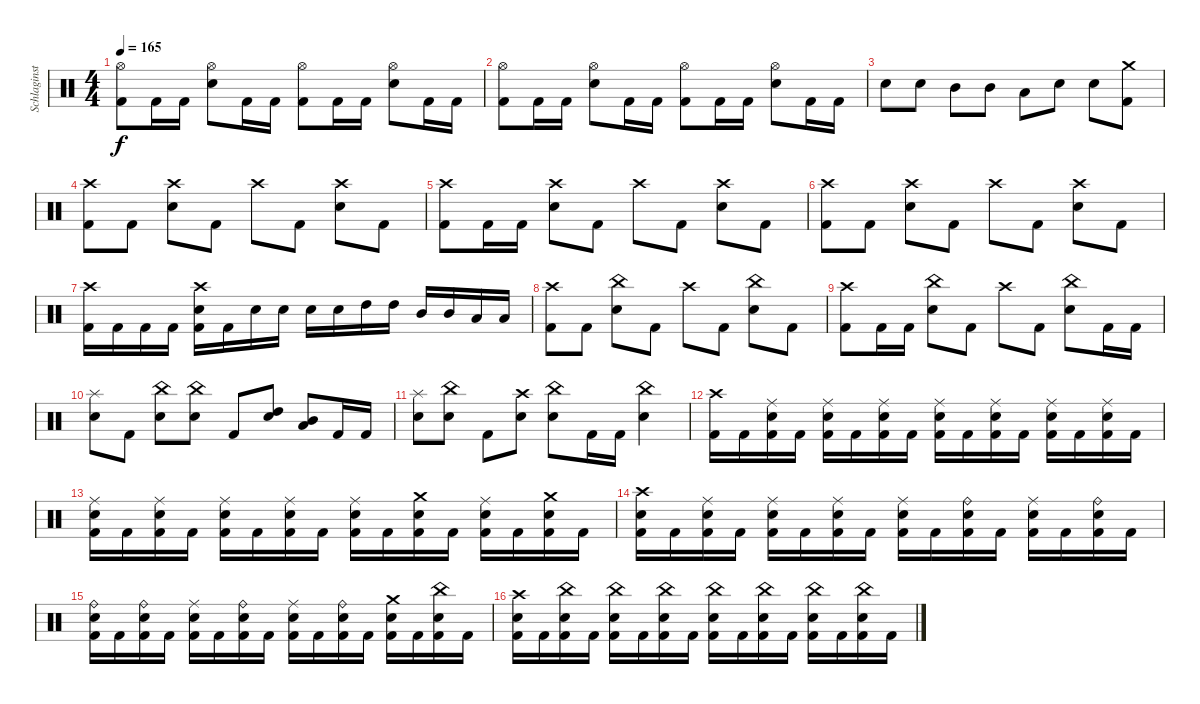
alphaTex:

\track ("Schlaginstrumente - Auswahl" "Schlaginst") {instrument percussion}
\staff {score}
\articulation defaults
\ts (4 4)
\tempo 165
\clef neutral
\ks c
("Hi-Hat (open)" "Kick (hit) 2").8{dy f} "Kick (hit) 2".16 "Kick (hit) 2".16 ("Hi-Hat (open)" "Snare (hit) 2").8 "Kick (hit) 2".16 "Kick (hit) 2".16 ("Hi-Hat (open)" "Kick (hit) 2").8 "Kick (hit) 2".16 "Kick (hit) 2".16 ("Hi-Hat (open)" "Snare (hit) 2").8 "Kick (hit) 2".16 "Kick (hit) 2".16 |
("Hi-Hat (open)" "Kick (hit) 2").8 "Kick (hit) 2".16 "Kick (hit) 2".16 ("Hi-Hat (open)" "Snare (hit) 2").8 "Kick (hit) 2".16 "Kick (hit) 2".16 ("Hi-Hat (open)" "Kick (hit) 2").8 "Kick (hit) 2".16 "Kick (hit) 2".16 ("Hi-Hat (open)" "Snare (hit) 2").8 "Kick (hit) 2".16 "Kick (hit) 2".16 |
"Snare (hit) 2".8 "Snare (hit) 2".8 "Mid Tom (hit)".8 "Mid Tom (hit)".8 "Low Tom (hit)".8 "Snare (hit) 2".8 "Snare (hit) 2".8 ("Crash medium (hit)" "Kick (hit) 2").8 |
("Crash high (hit)" "Kick (hit) 2").8 "Kick (hit) 2".8 ("Crash high (hit)" "Snare (hit) 2").8 "Kick (hit) 2".8 "Crash high (hit)".8 "Kick (hit) 2".8 ("Crash high (hit)" "Snare (hit) 2").8 "Kick (hit) 2".8 |
("Crash high (hit)" "Kick (hit) 2").8 "Kick (hit) 2".16 "Kick (hit) 2".16 ("Crash high (hit)" "Snare (hit) 2").8 "Kick (hit) 2".8 "Crash high (hit)".8 "Kick (hit) 2".8 ("Crash high (hit)" "Snare (hit) 2").8 "Kick (hit) 2".8 |
("Crash high (hit)" "Kick (hit) 2").8 "Kick (hit) 2".8 ("Crash high (hit)" "Snare (hit) 2").8 "Kick (hit) 2".8 "Crash high (hit)".8 "Kick (hit) 2".8 ("Crash high (hit)" "Snare (hit) 2").8 "Kick (hit) 2".8 |
("Crash high (hit)" "Kick (hit) 2").16 "Kick (hit) 2".16 "Kick (hit) 2".16 "Kick (hit) 2".16 ("Crash high (hit)" "Snare (hit) 2" "Kick (hit) 2").16 "Kick (hit) 2".16 "Snare (hit) 2".16 "Snare (hit) 2".16 "Snare (hit) 2".16 "Snare (hit) 2".16 "High Tom (hit)".16 "High Tom (hit)".16 "Mid Tom (hit)".16 "Mid Tom (hit)".16 "Low Tom (hit)".16 "Low Tom (hit)".16 |
("Crash high (hit)" "Kick (hit) 2").8 "Kick (hit) 2".8 ("China (hit)" "Snare (hit) 2").8 "Kick (hit) 2".8 "Crash high (hit)".8 "Kick (hit) 2".8 ("China (hit)" "Snare (hit) 2").8 "Kick (hit) 2".8 |
("Crash high (hit)" "Kick (hit) 2").8 "Kick (hit) 2".16 "Kick (hit) 2".16 ("China (hit)" "Snare (hit) 2").8 "Kick (hit) 2".8 "Crash high (hit)".8 "Kick (hit) 2".8 ("China (hit)" "Snare (hit) 2").8 "Kick (hit) 2".16 "Kick (hit) 2".16 |
("Splash (hit)" "Snare (hit) 2").8 "Kick (hit) 2".8 ("China (hit)" "Snare (hit) 2").8 ("China (hit)" "Snare (hit) 2").8 "Kick (hit) 2".8 ("High Tom (hit)" "Snare (hit) 2").8 ("Mid Tom (hit)" "Low Tom (hit)").8 "Kick (hit) 2".16 "Kick (hit) 2".16 |
("Splash (hit)" "Snare (hit) 2").8 ("China (hit)" "Snare (hit) 2").8 "Kick (hit) 2".8 ("Crash high (hit)" "Snare (hit) 2").8 ("China (hit)" "Snare (hit) 2").8 "Kick (hit) 2".16 "Kick (hit) 2".16 ("China (hit)" "Snare (hit) 2").4 |
("Crash high (hit)" "Kick (hit) 2").16 "Kick (hit) 2".16 ("Ride (middle)" "Snare (hit) 2" "Kick (hit) 2").16 "Kick (hit) 2".16 ("Ride (middle)" "Snare (hit) 2" "Kick (hit) 2").16 "Kick (hit) 2".16 ("Ride (middle)" "Snare (hit) 2" "Kick (hit) 2").16 "Kick (hit) 2".16 ("Ride (middle)" "Snare (hit) 2" "Kick (hit) 2").16 "Kick (hit) 2".16 ("Ride (middle)" "Snare (hit) 2" "Kick (hit) 2").16 "Kick (hit) 2".16 ("Ride (middle)" "Snare (hit) 2" "Kick (hit) 2").16 "Kick (hit) 2".16 ("Ride (middle)" "Snare (hit) 2" "Kick (hit) 2").16 "Kick (hit) 2".16 |
("Ride (middle)" "Snare (hit) 2" "Kick (hit) 2").16 "Kick (hit) 2".16 ("Ride (middle)" "Snare (hit) 2" "Kick (hit) 2").16 "Kick (hit) 2".16 ("Ride (middle)" "Snare (hit) 2" "Kick (hit) 2").16 "Kick (hit) 2".16 ("Ride (middle)" "Snare (hit) 2" "Kick (hit) 2").16 "Kick (hit) 2".16 ("Ride (middle)" "Snare (hit) 2" "Kick (hit) 2").16 "Kick (hit) 2".16 ("Crash medium (hit)" "Snare (hit) 2" "Kick (hit) 2").16 "Kick (hit) 2".16 ("Ride (middle)" "Snare (hit) 2" "Kick (hit) 2").16 "Kick (hit) 2".16 ("Crash medium (hit)" "Snare (hit) 2" "Kick (hit) 2").16 "Kick (hit) 2".16 |
("Crash high (hit)" "Snare (hit) 2" "Kick (hit) 2").16 "Kick (hit) 2".16 ("Ride (middle)" "Snare (hit) 2" "Kick (hit) 2").16 "Kick (hit) 2".16 ("Ride (middle)" "Snare (hit) 2" "Kick (hit) 2").16 "Kick (hit) 2".16 ("Ride (middle)" "Snare (hit) 2" "Kick (hit) 2").16 "Kick (hit) 2".16 ("Ride (middle)" "Snare (hit) 2" "Kick (hit) 2").16 "Kick (hit) 2".16 ("Ride (bell)" "Snare (hit) 2" "Kick (hit) 2").16 "Kick (hit) 2".16 ("Ride (middle)" "Snare (hit) 2" "Kick (hit) 2").16 "Kick (hit) 2".16 ("Ride (bell)" "Snare (hit) 2" "Kick (hit) 2").16 "Kick (hit) 2".16 |
("Ride (bell)" "Snare (hit) 2" "Kick (hit) 2").16 "Kick (hit) 2".16 ("Ride (bell)" "Snare (hit) 2" "Kick (hit) 2").16 "Kick (hit) 2".16 ("Ride (middle)" "Snare (hit) 2" "Kick (hit) 2").16 "Kick (hit) 2".16 ("Ride (bell)" "Snare (hit) 2" "Kick (hit) 2").16 "Kick (hit) 2".16 ("Ride (middle)" "Snare (hit) 2" "Kick (hit) 2").16 "Kick (hit) 2".16 ("Ride (bell)" "Snare (hit) 2" "Kick (hit) 2").16 "Kick (hit) 2".16 ("Crash medium (hit)" "Snare (hit) 2" "Kick (hit) 2").16 "Kick (hit) 2".16 ("China (hit)" "Snare (hit) 2" "Kick (hit) 2").16 "Kick (hit) 2".16 |
("Crash high (hit)" "Snare (hit) 2" "Kick (hit) 2").16 "Kick (hit) 2".16 ("China (hit)" "Snare (hit) 2" "Kick (hit) 2").16 "Kick (hit) 2".16 ("China (hit)" "Snare (hit) 2" "Kick (hit) 2").16 "Kick (hit) 2".16 ("China (hit)" "Snare (hit) 2" "Kick (hit) 2").16 "Kick (hit) 2".16 ("China (hit)" "Snare (hit) 2" "Kick (hit) 2").16 "Kick (hit) 2".16 ("China (hit)" "Snare (hit) 2" "Kick (hit) 2").16 "Kick (hit) 2".16 ("China (hit)" "Snare (hit) 2" "Kick (hit) 2").16 "Kick (hit) 2".16 ("China (hit)" "Snare (hit) 2" "Kick (hit) 2").16 "Kick (hit) 2".16
